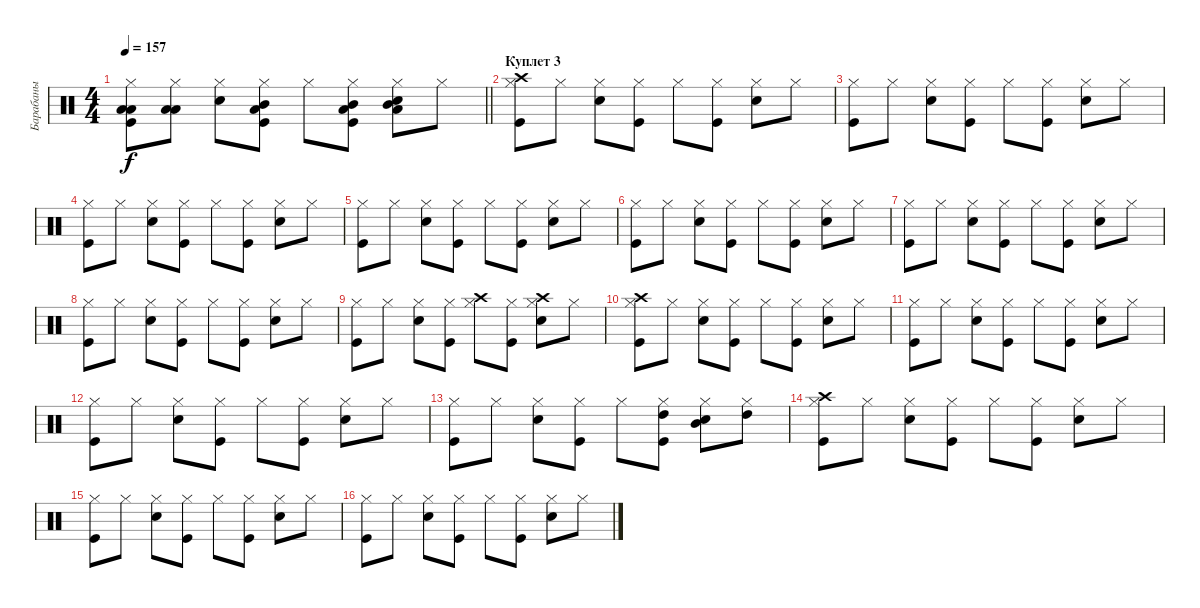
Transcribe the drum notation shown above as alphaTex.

\track ("Барабаны" "Барабаны") {instrument percussion}
\staff {score}
\articulation defaults
\ts (4 4)
\tempo 157
\clef neutral
\barLineRight lightlight
\ks c
("Kick (hit)" "Hi-Hat (closed)" "Low Floor Tom (hit)" "Low Tom (hit)").8{dy f} ("Hi-Hat (closed)" "Low Floor Tom (hit)" "Low Tom (hit)").8 ("Snare (hit) 2" "Hi-Hat (closed)").8 ("Kick (hit)" "Hi-Hat (closed)" "Low Tom (hit)" "Mid Tom (hit)").8 "Hi-Hat (closed)".8 ("Kick (hit)" "Hi-Hat (closed)" "Low Tom (hit)" "Mid Tom (hit)").8 ("Snare (hit) 2" "Hi-Hat (closed)" "Low Tom (hit)" "Mid Tom (hit)").8 "Hi-Hat (closed)".8 |
\section ("" "Куплет 3")
("Kick (hit)" "Hi-Hat (closed)" "Crash high (hit)").8 "Hi-Hat (closed)".8 ("Snare (hit) 2" "Hi-Hat (closed)").8 ("Kick (hit)" "Hi-Hat (closed)").8 "Hi-Hat (closed)".8 ("Kick (hit)" "Hi-Hat (closed)").8 ("Snare (hit) 2" "Hi-Hat (closed)").8 "Hi-Hat (closed)".8 |
("Kick (hit)" "Hi-Hat (closed)").8 "Hi-Hat (closed)".8 ("Snare (hit) 2" "Hi-Hat (closed)").8 ("Kick (hit)" "Hi-Hat (closed)").8 "Hi-Hat (closed)".8 ("Kick (hit)" "Hi-Hat (closed)").8 ("Snare (hit) 2" "Hi-Hat (closed)").8 "Hi-Hat (closed)".8 |
("Kick (hit)" "Hi-Hat (closed)").8 "Hi-Hat (closed)".8 ("Snare (hit) 2" "Hi-Hat (closed)").8 ("Kick (hit)" "Hi-Hat (closed)").8 "Hi-Hat (closed)".8 ("Kick (hit)" "Hi-Hat (closed)").8 ("Snare (hit) 2" "Hi-Hat (closed)").8 "Hi-Hat (closed)".8 |
("Kick (hit)" "Hi-Hat (closed)").8 "Hi-Hat (closed)".8 ("Snare (hit) 2" "Hi-Hat (closed)").8 ("Kick (hit)" "Hi-Hat (closed)").8 "Hi-Hat (closed)".8 ("Kick (hit)" "Hi-Hat (closed)").8 ("Snare (hit) 2" "Hi-Hat (closed)").8 "Hi-Hat (closed)".8 |
("Kick (hit)" "Hi-Hat (closed)").8 "Hi-Hat (closed)".8 ("Snare (hit) 2" "Hi-Hat (closed)").8 ("Kick (hit)" "Hi-Hat (closed)").8 "Hi-Hat (closed)".8 ("Kick (hit)" "Hi-Hat (closed)").8 ("Snare (hit) 2" "Hi-Hat (closed)").8 "Hi-Hat (closed)".8 |
("Kick (hit)" "Hi-Hat (closed)").8 "Hi-Hat (closed)".8 ("Snare (hit) 2" "Hi-Hat (closed)").8 ("Kick (hit)" "Hi-Hat (closed)").8 "Hi-Hat (closed)".8 ("Kick (hit)" "Hi-Hat (closed)").8 ("Snare (hit) 2" "Hi-Hat (closed)").8 "Hi-Hat (closed)".8 |
("Kick (hit)" "Hi-Hat (closed)").8 "Hi-Hat (closed)".8 ("Snare (hit) 2" "Hi-Hat (closed)").8 ("Kick (hit)" "Hi-Hat (closed)").8 "Hi-Hat (closed)".8 ("Kick (hit)" "Hi-Hat (closed)").8 ("Snare (hit) 2" "Hi-Hat (closed)").8 "Hi-Hat (closed)".8 |
("Kick (hit)" "Hi-Hat (closed)").8 "Hi-Hat (closed)".8 ("Snare (hit) 2" "Hi-Hat (closed)").8 ("Kick (hit)" "Hi-Hat (closed)").8 ("Hi-Hat (closed)" "Crash high (hit)").8 ("Kick (hit)" "Hi-Hat (closed)").8 ("Snare (hit) 2" "Hi-Hat (closed)" "Crash high (hit)").8 "Hi-Hat (closed)".8 |
("Kick (hit)" "Hi-Hat (closed)" "Crash high (hit)").8 "Hi-Hat (closed)".8 ("Snare (hit) 2" "Hi-Hat (closed)").8 ("Kick (hit)" "Hi-Hat (closed)").8 "Hi-Hat (closed)".8 ("Kick (hit)" "Hi-Hat (closed)").8 ("Snare (hit) 2" "Hi-Hat (closed)").8 "Hi-Hat (closed)".8 |
("Kick (hit)" "Hi-Hat (closed)").8 "Hi-Hat (closed)".8 ("Snare (hit) 2" "Hi-Hat (closed)").8 ("Kick (hit)" "Hi-Hat (closed)").8 "Hi-Hat (closed)".8 ("Kick (hit)" "Hi-Hat (closed)").8 ("Snare (hit) 2" "Hi-Hat (closed)").8 "Hi-Hat (closed)".8 |
("Kick (hit)" "Hi-Hat (closed)").8 "Hi-Hat (closed)".8 ("Snare (hit) 2" "Hi-Hat (closed)").8 ("Kick (hit)" "Hi-Hat (closed)").8 "Hi-Hat (closed)".8 ("Kick (hit)" "Hi-Hat (closed)").8 ("Snare (hit) 2" "Hi-Hat (closed)").8 "Hi-Hat (closed)".8 |
("Kick (hit)" "Hi-Hat (closed)").8 "Hi-Hat (closed)".8 ("Snare (hit) 2" "Hi-Hat (closed)").8 ("Kick (hit)" "Hi-Hat (closed)").8 "Hi-Hat (closed)".8 ("Kick (hit)" "Hi-Hat (closed)" "High Tom (hit)").8 ("Snare (hit) 2" "Hi-Hat (closed)" "Mid Tom (hit)").8 ("Hi-Hat (closed)" "High Tom (hit)").8 |
("Kick (hit)" "Hi-Hat (closed)" "Crash high (hit)").8 "Hi-Hat (closed)".8 ("Snare (hit) 2" "Hi-Hat (closed)").8 ("Kick (hit)" "Hi-Hat (closed)").8 "Hi-Hat (closed)".8 ("Kick (hit)" "Hi-Hat (closed)").8 ("Snare (hit) 2" "Hi-Hat (closed)").8 "Hi-Hat (closed)".8 |
("Kick (hit)" "Hi-Hat (closed)").8 "Hi-Hat (closed)".8 ("Snare (hit) 2" "Hi-Hat (closed)").8 ("Kick (hit)" "Hi-Hat (closed)").8 "Hi-Hat (closed)".8 ("Kick (hit)" "Hi-Hat (closed)").8 ("Snare (hit) 2" "Hi-Hat (closed)").8 "Hi-Hat (closed)".8 |
("Kick (hit)" "Hi-Hat (closed)").8 "Hi-Hat (closed)".8 ("Snare (hit) 2" "Hi-Hat (closed)").8 ("Kick (hit)" "Hi-Hat (closed)").8 "Hi-Hat (closed)".8 ("Kick (hit)" "Hi-Hat (closed)").8 ("Snare (hit) 2" "Hi-Hat (closed)").8 "Hi-Hat (closed)".8
